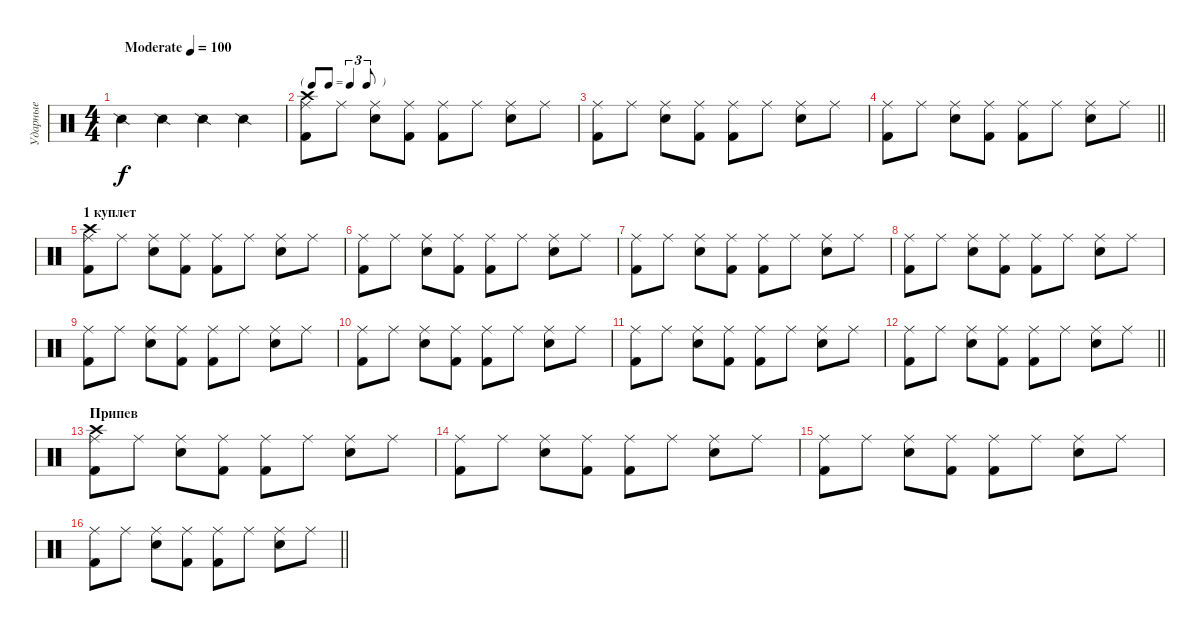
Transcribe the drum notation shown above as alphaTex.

\track ("Ударные" "Ударные") {instrument percussion}
\staff {score}
\articulation defaults
\ts (4 4)
\tempo (100 "Moderate")
\clef neutral
\ks c "Snare (side stick) 2".4{dy f} "Snare (side stick) 2".4 "Snare (side stick) 2".4 "Snare (side stick) 2".4
|
\tf triplet8th
("Ride (middle)" "Kick (hit) 2" "Crash high (hit)").8 "Ride (middle)".8 ("Ride (middle)" "Electric Snare (hit)").8 ("Ride (middle)" "Kick (hit) 2").8 ("Ride (middle)" "Kick (hit) 2").8 "Ride (middle)".8 ("Ride (middle)" "Electric Snare (hit)").8 "Ride (middle)".8 |
("Ride (middle)" "Kick (hit) 2").8 "Ride (middle)".8 ("Ride (middle)" "Electric Snare (hit)").8 ("Ride (middle)" "Kick (hit) 2").8 ("Ride (middle)" "Kick (hit) 2").8 "Ride (middle)".8 ("Ride (middle)" "Electric Snare (hit)").8 "Ride (middle)".8 |
\barLineRight lightlight
("Ride (middle)" "Kick (hit) 2").8 "Ride (middle)".8 ("Ride (middle)" "Electric Snare (hit)").8 ("Ride (middle)" "Kick (hit) 2").8 ("Ride (middle)" "Kick (hit) 2").8 "Ride (middle)".8 ("Ride (middle)" "Electric Snare (hit)").8 "Ride (middle)".8 |
\section ("" "1 куплет")
("Ride (middle)" "Kick (hit) 2" "Crash high (hit)").8 "Ride (middle)".8 ("Ride (middle)" "Electric Snare (hit)").8 ("Ride (middle)" "Kick (hit) 2").8 ("Ride (middle)" "Kick (hit) 2").8 "Ride (middle)".8 ("Ride (middle)" "Electric Snare (hit)").8 "Ride (middle)".8 |
("Ride (middle)" "Kick (hit) 2").8 "Ride (middle)".8 ("Ride (middle)" "Electric Snare (hit)").8 ("Ride (middle)" "Kick (hit) 2").8 ("Ride (middle)" "Kick (hit) 2").8 "Ride (middle)".8 ("Ride (middle)" "Electric Snare (hit)").8 "Ride (middle)".8 |
("Ride (middle)" "Kick (hit) 2").8 "Ride (middle)".8 ("Ride (middle)" "Electric Snare (hit)").8 ("Ride (middle)" "Kick (hit) 2").8 ("Ride (middle)" "Kick (hit) 2").8 "Ride (middle)".8 ("Ride (middle)" "Electric Snare (hit)").8 "Ride (middle)".8 |
("Ride (middle)" "Kick (hit) 2").8 "Ride (middle)".8 ("Ride (middle)" "Electric Snare (hit)").8 ("Ride (middle)" "Kick (hit) 2").8 ("Ride (middle)" "Kick (hit) 2").8 "Ride (middle)".8 ("Ride (middle)" "Electric Snare (hit)").8 "Ride (middle)".8 |
("Ride (middle)" "Kick (hit) 2").8 "Ride (middle)".8 ("Ride (middle)" "Electric Snare (hit)").8 ("Ride (middle)" "Kick (hit) 2").8 ("Ride (middle)" "Kick (hit) 2").8 "Ride (middle)".8 ("Ride (middle)" "Electric Snare (hit)").8 "Ride (middle)".8 |
("Ride (middle)" "Kick (hit) 2").8 "Ride (middle)".8 ("Ride (middle)" "Electric Snare (hit)").8 ("Ride (middle)" "Kick (hit) 2").8 ("Ride (middle)" "Kick (hit) 2").8 "Ride (middle)".8 ("Ride (middle)" "Electric Snare (hit)").8 "Ride (middle)".8 |
("Ride (middle)" "Kick (hit) 2").8 "Ride (middle)".8 ("Ride (middle)" "Electric Snare (hit)").8 ("Ride (middle)" "Kick (hit) 2").8 ("Ride (middle)" "Kick (hit) 2").8 "Ride (middle)".8 ("Ride (middle)" "Electric Snare (hit)").8 "Ride (middle)".8 |
\barLineRight lightlight
("Ride (middle)" "Kick (hit) 2").8 "Ride (middle)".8 ("Ride (middle)" "Electric Snare (hit)").8 ("Ride (middle)" "Kick (hit) 2").8 ("Ride (middle)" "Kick (hit) 2").8 "Ride (middle)".8 ("Ride (middle)" "Electric Snare (hit)").8 "Ride (middle)".8 |
\section ("" "Припев")
("Ride (middle)" "Kick (hit) 2" "Crash high (hit)").8 "Ride (middle)".8 ("Ride (middle)" "Electric Snare (hit)").8 ("Ride (middle)" "Kick (hit) 2").8 ("Ride (middle)" "Kick (hit) 2").8 "Ride (middle)".8 ("Ride (middle)" "Electric Snare (hit)").8 "Ride (middle)".8 |
("Ride (middle)" "Kick (hit) 2").8 "Ride (middle)".8 ("Ride (middle)" "Electric Snare (hit)").8 ("Ride (middle)" "Kick (hit) 2").8 ("Ride (middle)" "Kick (hit) 2").8 "Ride (middle)".8 ("Ride (middle)" "Electric Snare (hit)").8 "Ride (middle)".8 |
("Ride (middle)" "Kick (hit) 2").8 "Ride (middle)".8 ("Ride (middle)" "Electric Snare (hit)").8 ("Ride (middle)" "Kick (hit) 2").8 ("Ride (middle)" "Kick (hit) 2").8 "Ride (middle)".8 ("Ride (middle)" "Electric Snare (hit)").8 "Ride (middle)".8 |
\barLineRight lightlight
("Ride (middle)" "Kick (hit) 2").8 "Ride (middle)".8 ("Ride (middle)" "Electric Snare (hit)").8 ("Ride (middle)" "Kick (hit) 2").8 ("Ride (middle)" "Kick (hit) 2").8 "Ride (middle)".8 ("Ride (middle)" "Electric Snare (hit)").8 "Ride (middle)".8
